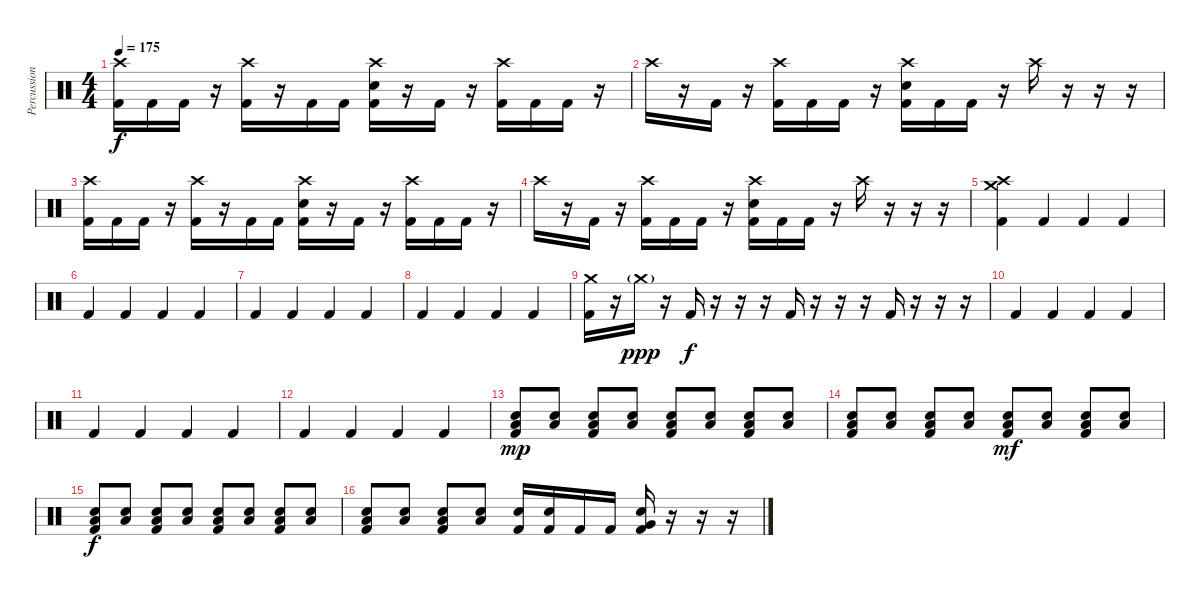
\track ("Percussion" "Percussion") {instrument percussion}
\staff {score}
\articulation defaults
\ts (4 4)
\tempo 175
\clef neutral
\ks c
("Crash high (hit)" "Kick (hit) 2").16{dy f} "Kick (hit) 2".16 "Kick (hit) 2".16 r.16 ("Crash high (hit)" "Kick (hit) 2").16 r.16 "Kick (hit) 2".16 "Kick (hit) 2".16 ("Crash high (hit)" "Electric Snare (hit)" "Kick (hit) 2").16 r.16 "Kick (hit) 2".16 r.16 ("Crash high (hit)" "Kick (hit) 2").16 "Kick (hit) 2".16 "Kick (hit) 2".16 r.16 |
"Crash high (hit)".16 r.16 "Kick (hit) 2".16 r.16 ("Crash high (hit)" "Kick (hit) 2").16 "Kick (hit) 2".16 "Kick (hit) 2".16 r.16 ("Crash high (hit)" "Electric Snare (hit)" "Kick (hit) 2").16 "Kick (hit) 2".16 "Kick (hit) 2".16 r.16 "Crash high (hit)".16 r.16 r.16 r.16 |
("Crash high (hit)" "Kick (hit) 2").16 "Kick (hit) 2".16 "Kick (hit) 2".16 r.16 ("Crash high (hit)" "Kick (hit) 2").16 r.16 "Kick (hit) 2".16 "Kick (hit) 2".16 ("Crash high (hit)" "Electric Snare (hit)" "Kick (hit) 2").16 r.16 "Kick (hit) 2".16 r.16 ("Crash high (hit)" "Kick (hit) 2").16 "Kick (hit) 2".16 "Kick (hit) 2".16 r.16 |
"Crash high (hit)".16 r.16 "Kick (hit) 2".16 r.16 ("Crash high (hit)" "Kick (hit) 2").16 "Kick (hit) 2".16 "Kick (hit) 2".16 r.16 ("Crash high (hit)" "Electric Snare (hit)" "Kick (hit) 2").16 "Kick (hit) 2".16 "Kick (hit) 2".16 r.16 "Crash high (hit)".16 r.16 r.16 r.16 |
("Crash medium (hit)" "Crash high (hit)" "Kick (hit) 2").4 "Kick (hit) 2".4 "Kick (hit) 2".4 "Kick (hit) 2".4 |
"Kick (hit) 2".4 "Kick (hit) 2".4 "Kick (hit) 2".4 "Kick (hit) 2".4 |
"Kick (hit) 2".4 "Kick (hit) 2".4 "Kick (hit) 2".4 "Kick (hit) 2".4 |
"Kick (hit) 2".4 "Kick (hit) 2".4 "Kick (hit) 2".4 "Kick (hit) 2".4 |
("Crash medium (hit)" "Kick (hit) 2").16 r.16 "Crash medium (hit)"{g}.16{dy ppp} r.16 "Kick (hit) 2".16{dy f} r.16 r.16 r.16 "Kick (hit) 2".16 r.16 r.16 r.16 "Kick (hit) 2".16 r.16 r.16 r.16 |
"Kick (hit) 2".4 "Kick (hit) 2".4 "Kick (hit) 2".4 "Kick (hit) 2".4 |
"Kick (hit) 2".4 "Kick (hit) 2".4 "Kick (hit) 2".4 "Kick (hit) 2".4 |
"Kick (hit) 2".4 "Kick (hit) 2".4 "Kick (hit) 2".4 "Kick (hit) 2".4 |
("Electric Snare (hit)" "Low Floor Tom (hit)" "Kick (hit) 2").8{dy mp} ("Electric Snare (hit)" "Low Floor Tom (hit)").8 ("Electric Snare (hit)" "Low Floor Tom (hit)" "Kick (hit) 2").8 ("Electric Snare (hit)" "Low Floor Tom (hit)").8 ("Electric Snare (hit)" "Low Floor Tom (hit)" "Kick (hit) 2").8 ("Electric Snare (hit)" "Low Floor Tom (hit)").8 ("Electric Snare (hit)" "Low Floor Tom (hit)" "Kick (hit) 2").8 ("Electric Snare (hit)" "Low Floor Tom (hit)").8 |
("Electric Snare (hit)" "Low Floor Tom (hit)" "Kick (hit) 2").8 ("Electric Snare (hit)" "Low Floor Tom (hit)").8 ("Electric Snare (hit)" "Low Floor Tom (hit)" "Kick (hit) 2").8 ("Electric Snare (hit)" "Low Floor Tom (hit)").8 ("Electric Snare (hit)" "Low Floor Tom (hit)" "Kick (hit) 2").8{dy mf} ("Electric Snare (hit)" "Low Floor Tom (hit)").8 ("Electric Snare (hit)" "Low Floor Tom (hit)" "Kick (hit) 2").8 ("Electric Snare (hit)" "Low Floor Tom (hit)").8 |
("Electric Snare (hit)" "Low Floor Tom (hit)" "Kick (hit) 2").8{dy f} ("Electric Snare (hit)" "Low Floor Tom (hit)").8 ("Electric Snare (hit)" "Low Floor Tom (hit)" "Kick (hit) 2").8 ("Electric Snare (hit)" "Low Floor Tom (hit)").8 ("Electric Snare (hit)" "Low Floor Tom (hit)" "Kick (hit) 2").8 ("Electric Snare (hit)" "Low Floor Tom (hit)").8 ("Electric Snare (hit)" "Low Floor Tom (hit)" "Kick (hit) 2").8 ("Electric Snare (hit)" "Low Floor Tom (hit)").8 |
("Electric Snare (hit)" "Low Floor Tom (hit)" "Kick (hit) 2").8 ("Electric Snare (hit)" "Low Floor Tom (hit)").8 ("Electric Snare (hit)" "Low Floor Tom (hit)" "Kick (hit) 2").8 ("Electric Snare (hit)" "Low Floor Tom (hit)").8 ("Electric Snare (hit)" "Kick (hit) 2").16 ("Electric Snare (hit)" "Kick (hit) 2").16 "Kick (hit) 2".16 "Kick (hit) 2".16 ("Electric Snare (hit)" "Very Low Tom (hit)" "Kick (hit) 2").16 r.16 r.16 r.16
